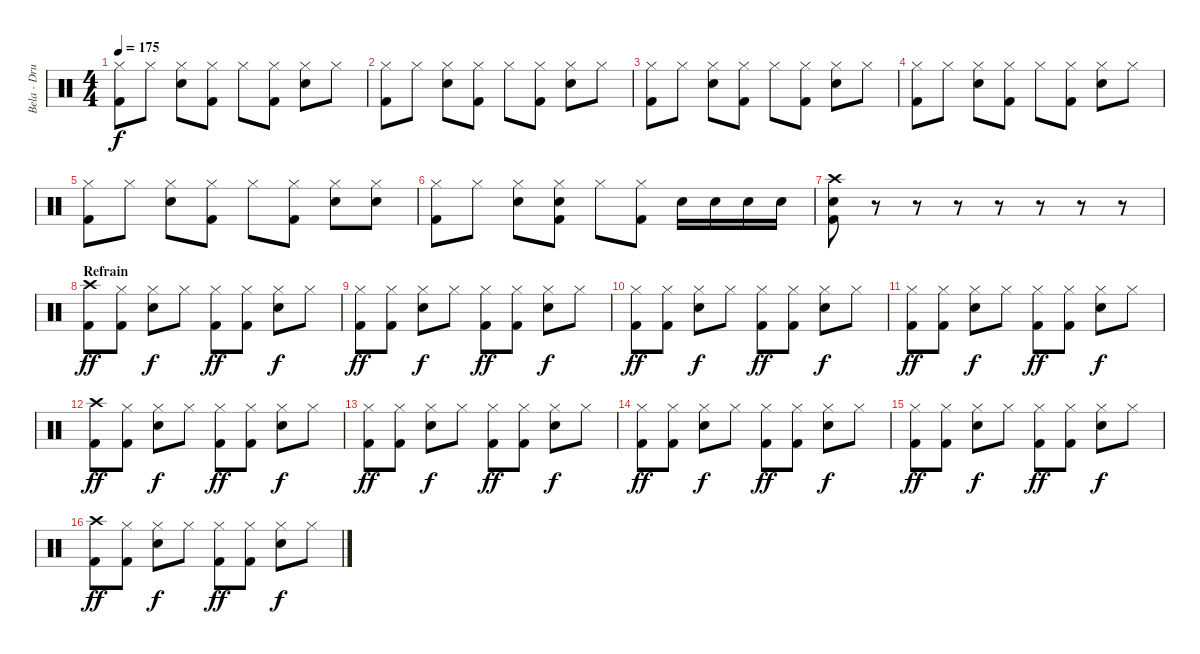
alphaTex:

\track ("Bela - Drums" "Bela - Dru") {instrument percussion}
\staff {score}
\articulation defaults
\ts (4 4)
\tempo 175
\clef neutral
\ks c
("Hi-Hat (closed)" "Kick (hit) 2").8{dy f} "Hi-Hat (closed)".8 ("Hi-Hat (closed)" "Electric Snare (hit)").8 ("Hi-Hat (closed)" "Kick (hit) 2").8 "Hi-Hat (closed)".8 ("Hi-Hat (closed)" "Kick (hit) 2").8 ("Hi-Hat (closed)" "Electric Snare (hit)").8 "Hi-Hat (closed)".8 |
("Hi-Hat (closed)" "Kick (hit) 2").8 "Hi-Hat (closed)".8 ("Hi-Hat (closed)" "Electric Snare (hit)").8 ("Hi-Hat (closed)" "Kick (hit) 2").8 "Hi-Hat (closed)".8 ("Hi-Hat (closed)" "Kick (hit) 2").8 ("Hi-Hat (closed)" "Electric Snare (hit)").8 "Hi-Hat (closed)".8 |
("Hi-Hat (closed)" "Kick (hit) 2").8 "Hi-Hat (closed)".8 ("Hi-Hat (closed)" "Electric Snare (hit)").8 ("Hi-Hat (closed)" "Kick (hit) 2").8 "Hi-Hat (closed)".8 ("Hi-Hat (closed)" "Kick (hit) 2").8 ("Hi-Hat (closed)" "Electric Snare (hit)").8 "Hi-Hat (closed)".8 |
("Hi-Hat (closed)" "Kick (hit) 2").8 "Hi-Hat (closed)".8 ("Hi-Hat (closed)" "Electric Snare (hit)").8 ("Hi-Hat (closed)" "Kick (hit) 2").8 "Hi-Hat (closed)".8 ("Hi-Hat (closed)" "Kick (hit) 2").8 ("Hi-Hat (closed)" "Electric Snare (hit)").8 "Hi-Hat (closed)".8 |
("Hi-Hat (closed)" "Kick (hit) 2").8 "Hi-Hat (closed)".8 ("Hi-Hat (closed)" "Electric Snare (hit)").8 ("Hi-Hat (closed)" "Kick (hit) 2").8 "Hi-Hat (closed)".8 ("Hi-Hat (closed)" "Kick (hit) 2").8 ("Hi-Hat (closed)" "Electric Snare (hit)").8 ("Hi-Hat (closed)" "Electric Snare (hit)").8 |
("Hi-Hat (closed)" "Kick (hit) 2").8 "Hi-Hat (closed)".8 ("Hi-Hat (closed)" "Electric Snare (hit)").8 ("Hi-Hat (closed)" "Electric Snare (hit)" "Kick (hit) 2").8 "Hi-Hat (closed)".8 ("Hi-Hat (closed)" "Kick (hit) 2").8 "Electric Snare (hit)".16 "Electric Snare (hit)".16 "Electric Snare (hit)".16 "Electric Snare (hit)".16 |
("Crash high (hit)" "Electric Snare (hit)" "Kick (hit) 2").8 r.8 r.8 r.8 r.8 r.8 r.8 r.8 |
\section ("" "Refrain")
("Crash high (hit)" "Kick (hit) 2").8{dy ff} ("Hi-Hat (closed)" "Kick (hit) 2").8 ("Hi-Hat (closed)" "Electric Snare (hit)").8{dy f} "Hi-Hat (closed)".8 ("Hi-Hat (closed)" "Kick (hit) 2").8{dy ff} ("Hi-Hat (closed)" "Kick (hit) 2").8 ("Hi-Hat (closed)" "Electric Snare (hit)").8{dy f} "Hi-Hat (closed)".8 |
("Hi-Hat (closed)" "Kick (hit) 2").8{dy ff} ("Hi-Hat (closed)" "Kick (hit) 2").8 ("Hi-Hat (closed)" "Electric Snare (hit)").8{dy f} "Hi-Hat (closed)".8 ("Hi-Hat (closed)" "Kick (hit) 2").8{dy ff} ("Hi-Hat (closed)" "Kick (hit) 2").8 ("Hi-Hat (closed)" "Electric Snare (hit)").8{dy f} "Hi-Hat (closed)".8 |
("Hi-Hat (closed)" "Kick (hit) 2").8{dy ff} ("Hi-Hat (closed)" "Kick (hit) 2").8 ("Hi-Hat (closed)" "Electric Snare (hit)").8{dy f} "Hi-Hat (closed)".8 ("Hi-Hat (closed)" "Kick (hit) 2").8{dy ff} ("Hi-Hat (closed)" "Kick (hit) 2").8 ("Hi-Hat (closed)" "Electric Snare (hit)").8{dy f} "Hi-Hat (closed)".8 |
("Hi-Hat (closed)" "Kick (hit) 2").8{dy ff} ("Hi-Hat (closed)" "Kick (hit) 2").8 ("Hi-Hat (closed)" "Electric Snare (hit)").8{dy f} "Hi-Hat (closed)".8 ("Hi-Hat (closed)" "Kick (hit) 2").8{dy ff} ("Hi-Hat (closed)" "Kick (hit) 2").8 ("Hi-Hat (closed)" "Electric Snare (hit)").8{dy f} "Hi-Hat (closed)".8 |
("Crash high (hit)" "Kick (hit) 2").8{dy ff} ("Hi-Hat (closed)" "Kick (hit) 2").8 ("Hi-Hat (closed)" "Electric Snare (hit)").8{dy f} "Hi-Hat (closed)".8 ("Hi-Hat (closed)" "Kick (hit) 2").8{dy ff} ("Hi-Hat (closed)" "Kick (hit) 2").8 ("Hi-Hat (closed)" "Electric Snare (hit)").8{dy f} "Hi-Hat (closed)".8 |
("Hi-Hat (closed)" "Kick (hit) 2").8{dy ff} ("Hi-Hat (closed)" "Kick (hit) 2").8 ("Hi-Hat (closed)" "Electric Snare (hit)").8{dy f} "Hi-Hat (closed)".8 ("Hi-Hat (closed)" "Kick (hit) 2").8{dy ff} ("Hi-Hat (closed)" "Kick (hit) 2").8 ("Hi-Hat (closed)" "Electric Snare (hit)").8{dy f} "Hi-Hat (closed)".8 |
("Hi-Hat (closed)" "Kick (hit) 2").8{dy ff} ("Hi-Hat (closed)" "Kick (hit) 2").8 ("Hi-Hat (closed)" "Electric Snare (hit)").8{dy f} "Hi-Hat (closed)".8 ("Hi-Hat (closed)" "Kick (hit) 2").8{dy ff} ("Hi-Hat (closed)" "Kick (hit) 2").8 ("Hi-Hat (closed)" "Electric Snare (hit)").8{dy f} "Hi-Hat (closed)".8 |
("Hi-Hat (closed)" "Kick (hit) 2").8{dy ff} ("Hi-Hat (closed)" "Kick (hit) 2").8 ("Hi-Hat (closed)" "Electric Snare (hit)").8{dy f} "Hi-Hat (closed)".8 ("Hi-Hat (closed)" "Kick (hit) 2").8{dy ff} ("Hi-Hat (closed)" "Kick (hit) 2").8 ("Hi-Hat (closed)" "Electric Snare (hit)").8{dy f} "Hi-Hat (closed)".8 |
("Crash high (hit)" "Kick (hit) 2").8{dy ff} ("Hi-Hat (closed)" "Kick (hit) 2").8 ("Hi-Hat (closed)" "Electric Snare (hit)").8{dy f} "Hi-Hat (closed)".8 ("Hi-Hat (closed)" "Kick (hit) 2").8{dy ff} ("Hi-Hat (closed)" "Kick (hit) 2").8 ("Hi-Hat (closed)" "Electric Snare (hit)").8{dy f} "Hi-Hat (closed)".8
